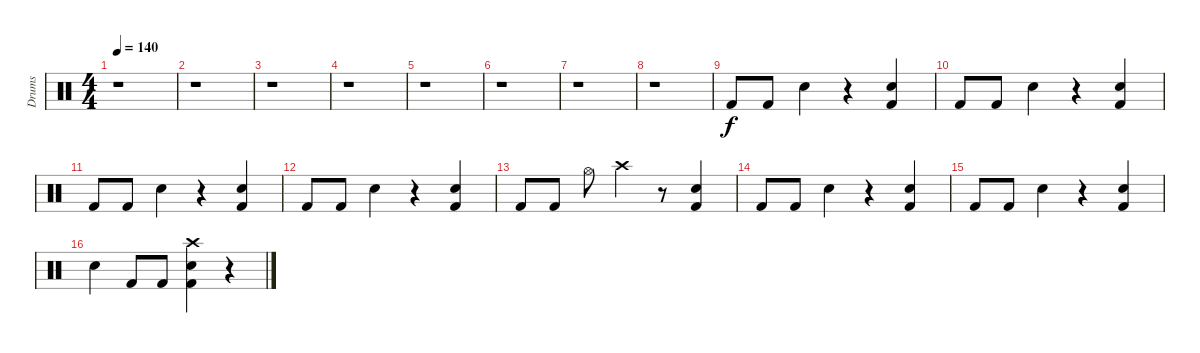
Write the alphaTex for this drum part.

\track ("Drums" "Drums") {instrument percussion}
\staff {score}
\articulation defaults
\ts (4 4)
\tempo 140
\clef neutral
\ks c
r.1{dy f} |
r.1 |
r.1 |
r.1 |
r.1 |
r.1 |
r.1 |
r.1 |
"Kick (hit) 2".8 "Kick (hit) 2".8 "Electric Snare (hit)".4 r.4 ("Kick (hit) 2" "Electric Snare (hit)").4 |
"Kick (hit) 2".8 "Kick (hit) 2".8 "Electric Snare (hit)".4 r.4 ("Kick (hit) 2" "Electric Snare (hit)").4 |
"Kick (hit) 2".8 "Kick (hit) 2".8 "Electric Snare (hit)".4 r.4 ("Kick (hit) 2" "Electric Snare (hit)").4 |
"Kick (hit) 2".8 "Kick (hit) 2".8 "Electric Snare (hit)".4 r.4 ("Kick (hit) 2" "Electric Snare (hit)").4 |
"Kick (hit) 2".8 "Kick (hit) 2".8 "Hi-Hat (open)".8 "Crash high (hit)".4 r.8 ("Kick (hit) 2" "Electric Snare (hit)").4 |
"Kick (hit) 2".8 "Kick (hit) 2".8 "Electric Snare (hit)".4 r.4 ("Kick (hit) 2" "Electric Snare (hit)").4 |
"Kick (hit) 2".8 "Kick (hit) 2".8 "Electric Snare (hit)".4 r.4 ("Kick (hit) 2" "Electric Snare (hit)").4 |
"Snare (hit) 2".4 "Kick (hit) 2".8 "Kick (hit) 2".8 ("Crash high (hit)" "Electric Snare (hit)" "Kick (hit) 2").4 r.4
